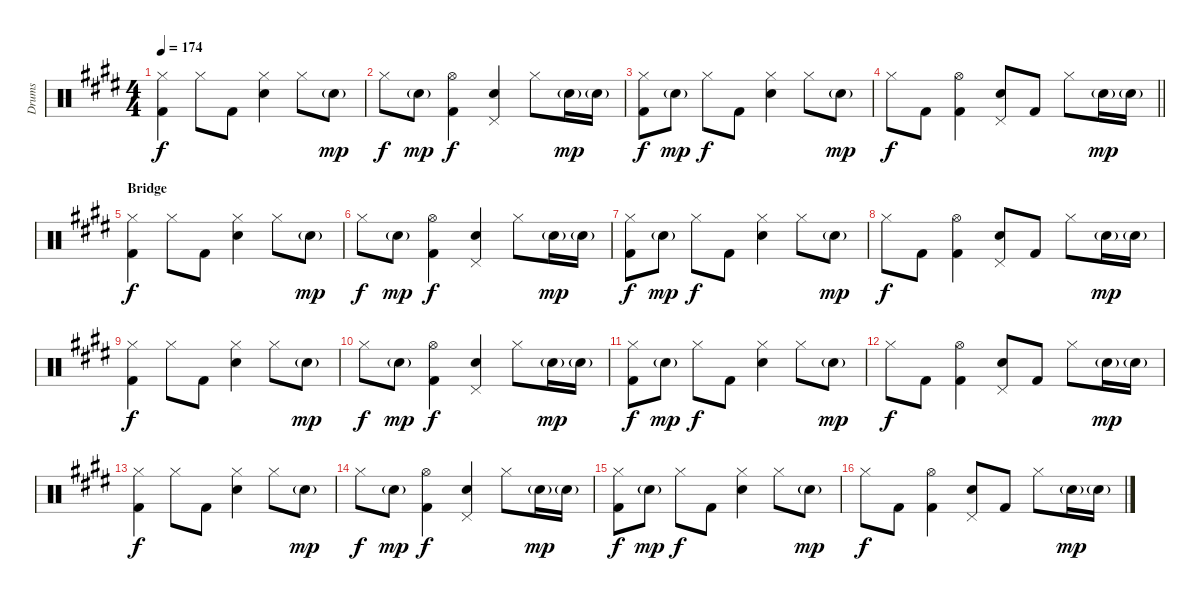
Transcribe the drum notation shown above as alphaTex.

\track ("Drums" "Drums") {instrument percussion bank 177}
\staff {score}
\articulation defaults
\ts (4 4)
\tempo 174
\clef neutral
\ks e
("Hi-Hat (closed)" "Kick (hit) 2").4{dy f} "Hi-Hat (closed)".8 "Kick (hit) 2".8 ("Hi-Hat (closed)" "Electric Snare (hit)").4 "Hi-Hat (closed)".8 "Electric Snare (hit)"{g}.8{dy mp} |
"Hi-Hat (closed)".8{dy f} "Electric Snare (hit)"{g}.8{dy mp} ("Hi-Hat (open)" "Kick (hit) 2").4{dy f} ("Pedal Hi-Hat (hit)" "Electric Snare (hit)").4 "Hi-Hat (closed)".8 "Electric Snare (hit)"{g}.16{dy mp} "Electric Snare (hit)"{g}.16 |
("Hi-Hat (closed)" "Kick (hit) 2").8{dy f} "Electric Snare (hit)"{g}.8{dy mp} "Hi-Hat (closed)".8{dy f} "Kick (hit) 2".8 ("Hi-Hat (closed)" "Electric Snare (hit)").4 "Hi-Hat (closed)".8 "Electric Snare (hit)"{g}.8{dy mp} |
\barLineRight lightlight "Hi-Hat (closed)".8{dy f} "Kick (hit) 2".8
("Hi-Hat (open)" "Kick (hit) 2").4 ("Pedal Hi-Hat (hit)" "Electric Snare (hit)").8 "Kick (hit) 2".8 "Hi-Hat (closed)".8 "Electric Snare (hit)"{g}.16{dy mp} "Electric Snare (hit)"{g}.16 |
\section ("" "Bridge")
("Hi-Hat (closed)" "Kick (hit) 2").4{dy f} "Hi-Hat (closed)".8 "Kick (hit) 2".8 ("Hi-Hat (closed)" "Electric Snare (hit)").4 "Hi-Hat (closed)".8 "Electric Snare (hit)"{g}.8{dy mp} |
"Hi-Hat (closed)".8{dy f} "Electric Snare (hit)"{g}.8{dy mp} ("Hi-Hat (open)" "Kick (hit) 2").4{dy f} ("Pedal Hi-Hat (hit)" "Electric Snare (hit)").4 "Hi-Hat (closed)".8 "Electric Snare (hit)"{g}.16{dy mp} "Electric Snare (hit)"{g}.16 |
("Hi-Hat (closed)" "Kick (hit) 2").8{dy f} "Electric Snare (hit)"{g}.8{dy mp} "Hi-Hat (closed)".8{dy f} "Kick (hit) 2".8 ("Hi-Hat (closed)" "Electric Snare (hit)").4 "Hi-Hat (closed)".8 "Electric Snare (hit)"{g}.8{dy mp} |
"Hi-Hat (closed)".8{dy f} "Kick (hit) 2".8 ("Hi-Hat (open)" "Kick (hit) 2").4 ("Pedal Hi-Hat (hit)" "Electric Snare (hit)").8 "Kick (hit) 2".8 "Hi-Hat (closed)".8 "Electric Snare (hit)"{g}.16{dy mp} "Electric Snare (hit)"{g}.16 |
("Hi-Hat (closed)" "Kick (hit) 2").4{dy f} "Hi-Hat (closed)".8 "Kick (hit) 2".8 ("Hi-Hat (closed)" "Electric Snare (hit)").4 "Hi-Hat (closed)".8 "Electric Snare (hit)"{g}.8{dy mp} |
"Hi-Hat (closed)".8{dy f} "Electric Snare (hit)"{g}.8{dy mp} ("Hi-Hat (open)" "Kick (hit) 2").4{dy f} ("Pedal Hi-Hat (hit)" "Electric Snare (hit)").4 "Hi-Hat (closed)".8 "Electric Snare (hit)"{g}.16{dy mp} "Electric Snare (hit)"{g}.16 |
("Hi-Hat (closed)" "Kick (hit) 2").8{dy f} "Electric Snare (hit)"{g}.8{dy mp} "Hi-Hat (closed)".8{dy f} "Kick (hit) 2".8 ("Hi-Hat (closed)" "Electric Snare (hit)").4 "Hi-Hat (closed)".8 "Electric Snare (hit)"{g}.8{dy mp} |
"Hi-Hat (closed)".8{dy f} "Kick (hit) 2".8 ("Hi-Hat (open)" "Kick (hit) 2").4 ("Pedal Hi-Hat (hit)" "Electric Snare (hit)").8 "Kick (hit) 2".8 "Hi-Hat (closed)".8 "Electric Snare (hit)"{g}.16{dy mp} "Electric Snare (hit)"{g}.16 |
("Hi-Hat (closed)" "Kick (hit) 2").4{dy f} "Hi-Hat (closed)".8 "Kick (hit) 2".8 ("Hi-Hat (closed)" "Electric Snare (hit)").4 "Hi-Hat (closed)".8 "Electric Snare (hit)"{g}.8{dy mp} |
"Hi-Hat (closed)".8{dy f} "Electric Snare (hit)"{g}.8{dy mp} ("Hi-Hat (open)" "Kick (hit) 2").4{dy f} ("Pedal Hi-Hat (hit)" "Electric Snare (hit)").4 "Hi-Hat (closed)".8 "Electric Snare (hit)"{g}.16{dy mp} "Electric Snare (hit)"{g}.16 |
("Hi-Hat (closed)" "Kick (hit) 2").8{dy f} "Electric Snare (hit)"{g}.8{dy mp} "Hi-Hat (closed)".8{dy f} "Kick (hit) 2".8 ("Hi-Hat (closed)" "Electric Snare (hit)").4 "Hi-Hat (closed)".8 "Electric Snare (hit)"{g}.8{dy mp} |
"Hi-Hat (closed)".8{dy f} "Kick (hit) 2".8 ("Hi-Hat (open)" "Kick (hit) 2").4 ("Pedal Hi-Hat (hit)" "Electric Snare (hit)").8 "Kick (hit) 2".8 "Hi-Hat (closed)".8 "Electric Snare (hit)"{g}.16{dy mp} "Electric Snare (hit)"{g}.16
